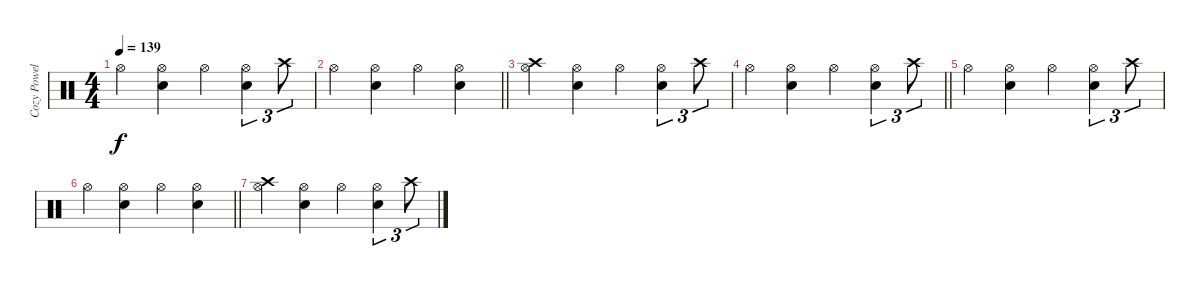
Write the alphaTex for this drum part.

\track ("Cozy Powell" "Cozy Powel") {instrument percussion}
\staff {score}
\articulation defaults
\ts (4 4)
\tempo 139
\clef neutral
\ks c "Hi-Hat (open)".4{dy f}
("Hi-Hat (open)" "Snare (hit) 2").4 "Hi-Hat (open)".4 ("Hi-Hat (open)" "Snare (hit) 2").4{tu (3 2)} "Crash high (hit)".8{tu (3 2)} |
\barLineRight lightlight "Hi-Hat (open)".4
("Hi-Hat (open)" "Snare (hit) 2").4 "Hi-Hat (open)".4 ("Hi-Hat (open)" "Snare (hit) 2").4 |
("Hi-Hat (open)" "Crash high (hit)").4 ("Hi-Hat (open)" "Snare (hit) 2").4 "Hi-Hat (open)".4 ("Hi-Hat (open)" "Snare (hit) 2").4{tu (3 2)} "Crash high (hit)".8{tu (3 2)} |
\barLineRight lightlight "Hi-Hat (open)".4
("Hi-Hat (open)" "Snare (hit) 2").4 "Hi-Hat (open)".4 ("Hi-Hat (open)" "Snare (hit) 2").4{tu (3 2)} "Crash high (hit)".8{tu (3 2)} |
"Hi-Hat (open)".4 ("Hi-Hat (open)" "Snare (hit) 2").4 "Hi-Hat (open)".4 ("Hi-Hat (open)" "Snare (hit) 2").4{tu (3 2)} "Crash high (hit)".8{tu (3 2)} |
\barLineRight lightlight "Hi-Hat (open)".4
("Hi-Hat (open)" "Snare (hit) 2").4 "Hi-Hat (open)".4 ("Hi-Hat (open)" "Snare (hit) 2").4 |
("Hi-Hat (open)" "Crash high (hit)").4 ("Hi-Hat (open)" "Snare (hit) 2").4 "Hi-Hat (open)".4 ("Hi-Hat (open)" "Snare (hit) 2").4{tu (3 2)} "Crash high (hit)".8{tu (3 2)}
